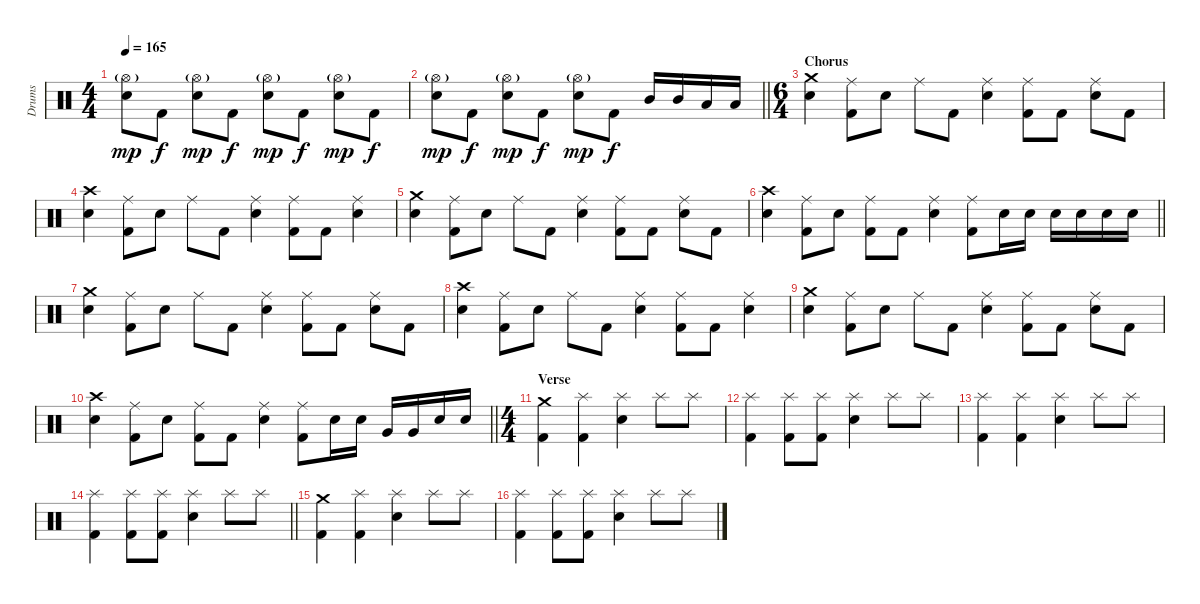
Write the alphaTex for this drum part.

\track ("Drums" "Drums") {instrument percussion}
\staff {score}
\articulation defaults
\ts (4 4)
\tempo 165
\clef neutral
\ks c
("Snare (hit) 2" "Hi-Hat (open)"{g}).8{dy mp} "Kick (hit) 2".8{dy f} ("Snare (hit) 2" "Hi-Hat (open)"{g}).8{dy mp} "Kick (hit) 2".8{dy f} ("Snare (hit) 2" "Hi-Hat (open)"{g}).8{dy mp} "Kick (hit) 2".8{dy f} ("Snare (hit) 2" "Hi-Hat (open)"{g}).8{dy mp} "Kick (hit) 2".8{dy f} |
\barLineRight lightlight
("Snare (hit) 2" "Hi-Hat (open)"{g}).8{dy mp} "Kick (hit) 2".8{dy f} ("Snare (hit) 2" "Hi-Hat (open)"{g}).8{dy mp} "Kick (hit) 2".8{dy f} ("Snare (hit) 2" "Hi-Hat (open)"{g}).8{dy mp} "Kick (hit) 2".8{dy f} "Mid Tom (hit)".16 "Mid Tom (hit)".16 "Low Tom (hit)".16 "Low Tom (hit)".16 |
\ts (6 4)
\section ("" "Chorus")
("Snare (hit) 2" "Crash medium (hit)").4 ("Kick (hit) 2" "Ride (middle)").8 "Snare (hit) 2".8 "Ride (middle)".8 "Kick (hit) 2".8 ("Snare (hit) 2" "Ride (middle)").4 ("Kick (hit) 2" "Ride (middle)").8 "Kick (hit) 2".8 ("Snare (hit) 2" "Ride (middle)").8 "Kick (hit) 2".8 |
("Snare (hit) 2" "Crash high (hit)").4 ("Kick (hit) 2" "Ride (middle)").8 "Snare (hit) 2".8 "Ride (middle)".8 "Kick (hit) 2".8 ("Snare (hit) 2" "Ride (middle)").4 ("Kick (hit) 2" "Ride (middle)").8 "Kick (hit) 2".8 ("Snare (hit) 2" "Ride (middle)").4 |
("Snare (hit) 2" "Crash medium (hit)").4 ("Kick (hit) 2" "Ride (middle)").8 "Snare (hit) 2".8 "Ride (middle)".8 "Kick (hit) 2".8 ("Snare (hit) 2" "Ride (middle)").4 ("Kick (hit) 2" "Ride (middle)").8 "Kick (hit) 2".8 ("Snare (hit) 2" "Ride (middle)").8 "Kick (hit) 2".8 |
\barLineRight lightlight
("Snare (hit) 2" "Crash high (hit)").4 ("Kick (hit) 2" "Ride (middle)").8 "Snare (hit) 2".8 ("Kick (hit) 2" "Ride (middle)").8 "Kick (hit) 2".8 ("Snare (hit) 2" "Ride (middle)").4 ("Kick (hit) 2" "Ride (middle)").8 "Snare (hit) 2".16 "Snare (hit) 2".16 "Snare (hit) 2".16 "Snare (hit) 2".16 "Snare (hit) 2".16 "Snare (hit) 2".16 |
\section ("" "")
("Snare (hit) 2" "Crash medium (hit)").4 ("Kick (hit) 2" "Ride (middle)").8 "Snare (hit) 2".8 "Ride (middle)".8 "Kick (hit) 2".8 ("Snare (hit) 2" "Ride (middle)").4 ("Kick (hit) 2" "Ride (middle)").8 "Kick (hit) 2".8 ("Snare (hit) 2" "Ride (middle)").8 "Kick (hit) 2".8 |
("Snare (hit) 2" "Crash high (hit)").4 ("Kick (hit) 2" "Ride (middle)").8 "Snare (hit) 2".8 "Ride (middle)".8 "Kick (hit) 2".8 ("Snare (hit) 2" "Ride (middle)").4 ("Kick (hit) 2" "Ride (middle)").8 "Kick (hit) 2".8 ("Snare (hit) 2" "Ride (middle)").4 |
("Snare (hit) 2" "Crash medium (hit)").4 ("Kick (hit) 2" "Ride (middle)").8 "Snare (hit) 2".8 "Ride (middle)".8 "Kick (hit) 2".8 ("Snare (hit) 2" "Ride (middle)").4 ("Kick (hit) 2" "Ride (middle)").8 "Kick (hit) 2".8 ("Snare (hit) 2" "Ride (middle)").8 "Kick (hit) 2".8 |
\barLineRight lightlight
("Snare (hit) 2" "Crash high (hit)").4 ("Kick (hit) 2" "Ride (middle)").8 "Snare (hit) 2".8 ("Kick (hit) 2" "Ride (middle)").8 "Kick (hit) 2".8 ("Snare (hit) 2" "Ride (middle)").4 ("Kick (hit) 2" "Ride (middle)").8 "Snare (hit) 2".16 "Snare (hit) 2".16 "Very Low Tom (hit)".16 "Very Low Tom (hit)".16 "Snare (hit) 2".16 "Snare (hit) 2".16 |
\ts (4 4)
\section ("" "Verse")
("Kick (hit) 2" "Crash medium (hit)").4 ("Kick (hit) 2" "Splash (hit)").4 ("Snare (hit) 2" "Splash (hit)").4 "Splash (hit)".8 "Splash (hit)".8 |
("Kick (hit) 2" "Splash (hit)").4 ("Kick (hit) 2" "Splash (hit)").8 ("Kick (hit) 2" "Splash (hit)").8 ("Snare (hit) 2" "Splash (hit)").4 "Splash (hit)".8 "Splash (hit)".8 |
("Kick (hit) 2" "Splash (hit)").4 ("Kick (hit) 2" "Splash (hit)").4 ("Snare (hit) 2" "Splash (hit)").4 "Splash (hit)".8 "Splash (hit)".8 |
\barLineRight lightlight
("Kick (hit) 2" "Splash (hit)").4 ("Kick (hit) 2" "Splash (hit)").8 ("Kick (hit) 2" "Splash (hit)").8 ("Snare (hit) 2" "Splash (hit)").4 "Splash (hit)".8 "Splash (hit)".8 |
\section ("" "")
("Kick (hit) 2" "Crash medium (hit)").4 ("Kick (hit) 2" "Splash (hit)").4 ("Snare (hit) 2" "Splash (hit)").4 "Splash (hit)".8 "Splash (hit)".8 |
("Kick (hit) 2" "Splash (hit)").4 ("Kick (hit) 2" "Splash (hit)").8 ("Kick (hit) 2" "Splash (hit)").8 ("Snare (hit) 2" "Splash (hit)").4 "Splash (hit)".8 "Splash (hit)".8
